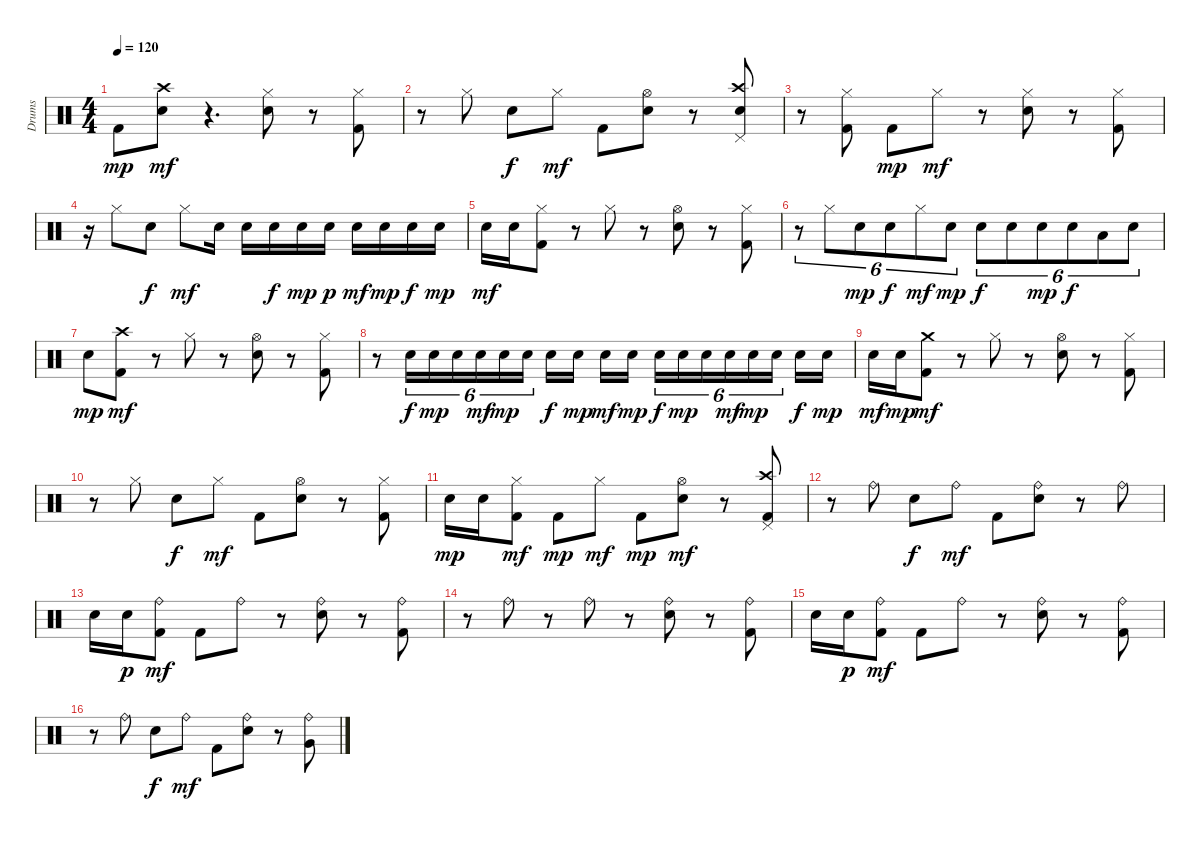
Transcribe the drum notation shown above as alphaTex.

\track ("Drums" "Drums") {instrument percussion}
\staff {score}
\articulation defaults
\ts (4 4)
\tempo 120
\clef neutral
\ks c "Kick (hit) 2".8{dy mp}
("Electric Snare (hit)" "Crash high (hit)").8{dy mf} r.4{d} ("Electric Snare (hit)" "Hi-Hat (closed)").8 r.8 ("Kick (hit) 2" "Hi-Hat (closed)").8 |
r.8 "Hi-Hat (closed)".8 "Electric Snare (hit)".8{dy f} "Hi-Hat (closed)".8{dy mf} "Kick (hit) 2".8 ("Electric Snare (hit)" "Hi-Hat (open)").8 r.8 ("Electric Snare (hit)" "Pedal Hi-Hat (hit)" "Crash high (hit)").8 |
r.8 ("Kick (hit) 2" "Hi-Hat (closed)").8 "Kick (hit) 2".8{dy mp} "Hi-Hat (closed)".8{dy mf} r.8 ("Electric Snare (hit)" "Hi-Hat (closed)").8 r.8 ("Kick (hit) 2" "Hi-Hat (closed)").8 |
r.16 "Hi-Hat (closed)".8 "Electric Snare (hit)".8{dy f} "Hi-Hat (closed)".8{dy mf} "Electric Snare (hit)".16 "Electric Snare (hit)".16 "Electric Snare (hit)".16{dy f} "Electric Snare (hit)".16{dy mp} "Electric Snare (hit)".16{dy p} "Electric Snare (hit)".16{dy mf} "Electric Snare (hit)".16{dy mp} "Electric Snare (hit)".16{dy f} "Electric Snare (hit)".16{dy mp} |
"Electric Snare (hit)".16{dy mf} "Electric Snare (hit)".16 ("Kick (hit) 2" "Hi-Hat (closed)").8 r.8 "Hi-Hat (closed)".8 r.8 ("Electric Snare (hit)" "Hi-Hat (open)").8 r.8 ("Kick (hit) 2" "Hi-Hat (closed)").8 |
r.8{tu (6 4)} "Hi-Hat (closed)".8{tu (6 4)} "Electric Snare (hit)".8{tu (6 4) dy mp} "Electric Snare (hit)".8{tu (6 4) dy f} "Hi-Hat (closed)".8{tu (6 4) dy mf} "Electric Snare (hit)".8{tu (6 4) dy mp} "Electric Snare (hit)".8{tu (6 4) dy f} "Electric Snare (hit)".8{tu (6 4)} "Electric Snare (hit)".8{tu (6 4) dy mp} "Electric Snare (hit)".8{tu (6 4) dy f} "Low Tom (hit)".8{tu (6 4)} "Electric Snare (hit)".8{tu (6 4)} |
"Electric Snare (hit)".8{dy mp} ("Kick (hit) 2" "Crash high (hit)").8{dy mf} r.8 "Hi-Hat (closed)".8 r.8 ("Electric Snare (hit)" "Hi-Hat (open)").8 r.8 ("Kick (hit) 2" "Hi-Hat (closed)").8 |
r.8 "Electric Snare (hit)".16{tu (6 4) dy f} "Electric Snare (hit)".16{tu (6 4) dy mp} "Electric Snare (hit)".16{tu (6 4)} "Electric Snare (hit)".16{tu (6 4) dy mf} "Electric Snare (hit)".16{tu (6 4) dy mp} "Electric Snare (hit)".16{tu (6 4)} "Electric Snare (hit)".16{dy f} "Electric Snare (hit)".16{dy mp} "Electric Snare (hit)".16{dy mf} "Electric Snare (hit)".16{dy mp} "Electric Snare (hit)".16{tu (6 4) dy f} "Electric Snare (hit)".16{tu (6 4) dy mp} "Electric Snare (hit)".16{tu (6 4)} "Electric Snare (hit)".16{tu (6 4) dy mf} "Electric Snare (hit)".16{tu (6 4) dy mp} "Electric Snare (hit)".16{tu (6 4)} "Electric Snare (hit)".16{dy f} "Electric Snare (hit)".16{dy mp} |
"Electric Snare (hit)".16{dy mf} "Electric Snare (hit)".16{dy mp} ("Kick (hit) 2" "Crash medium (hit)").8{dy mf} r.8 "Hi-Hat (closed)".8 r.8 ("Electric Snare (hit)" "Hi-Hat (open)").8 r.8 ("Kick (hit) 2" "Hi-Hat (closed)").8 |
r.8 "Hi-Hat (closed)".8 "Electric Snare (hit)".8{dy f} "Hi-Hat (closed)".8{dy mf} "Kick (hit) 2".8 ("Electric Snare (hit)" "Hi-Hat (open)").8 r.8 ("Kick (hit) 2" "Hi-Hat (closed)").8 |
"Electric Snare (hit)".16{dy mp} "Electric Snare (hit)".16 ("Kick (hit) 2" "Hi-Hat (closed)").8{dy mf} "Kick (hit) 2".8{dy mp} "Hi-Hat (closed)".8{dy mf} "Kick (hit) 2".8{dy mp} ("Electric Snare (hit)" "Hi-Hat (open)").8{dy mf} r.8 ("Kick (hit) 2" "Pedal Hi-Hat (hit)" "Crash high (hit)").8 |
r.8 "Ride (bell)".8 "Electric Snare (hit)".8{dy f} "Ride (bell)".8{dy mf} "Kick (hit) 2".8 ("Electric Snare (hit)" "Ride (bell)").8 r.8 "Ride (bell)".8 |
"Electric Snare (hit)".16 "Electric Snare (hit)".16{dy p} ("Kick (hit) 2" "Ride (bell)").8{dy mf} "Kick (hit) 2".8 "Ride (bell)".8 r.8 ("Electric Snare (hit)" "Ride (bell)").8 r.8 ("Kick (hit) 2" "Ride (bell)").8 |
r.8 "Ride (bell)".8 r.8 "Ride (bell)".8 r.8 ("Electric Snare (hit)" "Ride (bell)").8 r.8 ("Kick (hit) 2" "Ride (bell)").8 |
"Electric Snare (hit)".16 "Electric Snare (hit)".16{dy p} ("Kick (hit) 2" "Ride (bell)").8{dy mf} "Kick (hit) 2".8 "Ride (bell)".8 r.8 ("Electric Snare (hit)" "Ride (bell)").8 r.8 ("Kick (hit) 2" "Ride (bell)").8 |
r.8 "Ride (bell)".8 "Electric Snare (hit)".8{dy f} "Ride (bell)".8{dy mf} "Kick (hit) 2".8 ("Electric Snare (hit)" "Ride (bell)").8 r.8 ("Very Low Tom (hit)" "Ride (bell)").8
